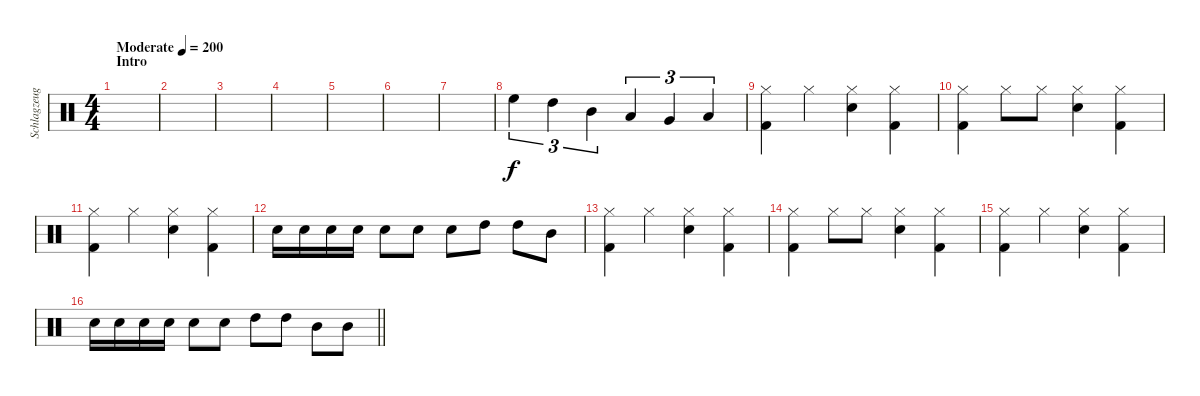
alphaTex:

\track ("Schlagzeug" "Schlagzeug") {instrument percussion}
\staff {score}
\articulation defaults
\ts (4 4)
\section ("" "Intro")
\tempo (200 "Moderate")
\clef neutral
\ks c
|
|
|
|
|
|
|
"High Floor Tom (hit)".4{tu (3 2)} "High Tom (hit)".4{tu (3 2)} "Mid Tom (hit)".4{tu (3 2)} "Low Tom (hit)".4{tu (3 2)} "Very Low Tom (hit)".4{tu (3 2)} "Low Floor Tom (hit)".4{tu (3 2)} |
("Hi-Hat (closed)" "Kick (hit) 2").4 "Hi-Hat (closed)".4 ("Hi-Hat (closed)" "Snare (hit) 2").4 ("Hi-Hat (closed)" "Kick (hit) 2").4 |
("Hi-Hat (closed)" "Kick (hit) 2").4 "Hi-Hat (closed)".8 "Hi-Hat (closed)".8 ("Hi-Hat (closed)" "Snare (hit) 2").4 ("Hi-Hat (closed)" "Kick (hit) 2").4 |
("Hi-Hat (closed)" "Kick (hit) 2").4 "Hi-Hat (closed)".4 ("Hi-Hat (closed)" "Snare (hit) 2").4 ("Hi-Hat (closed)" "Kick (hit) 2").4 |
"Electric Snare (hit)".16 "Electric Snare (hit)".16 "Electric Snare (hit)".16 "Electric Snare (hit)".16 "Snare (hit) 2".8 "Snare (hit) 2".8 "Snare (hit) 2".8 "High Tom (hit)".8 "High Tom (hit)".8 "Mid Tom (hit)".8 |
("Hi-Hat (closed)" "Kick (hit) 2").4 "Hi-Hat (closed)".4 ("Hi-Hat (closed)" "Snare (hit) 2").4 ("Hi-Hat (closed)" "Kick (hit) 2").4 |
("Hi-Hat (closed)" "Kick (hit) 2").4 "Hi-Hat (closed)".8 "Hi-Hat (closed)".8 ("Hi-Hat (closed)" "Snare (hit) 2").4 ("Hi-Hat (closed)" "Kick (hit) 2").4 |
("Hi-Hat (closed)" "Kick (hit) 2").4 "Hi-Hat (closed)".4 ("Hi-Hat (closed)" "Snare (hit) 2").4 ("Hi-Hat (closed)" "Kick (hit) 2").4 |
\barLineRight lightlight "Snare (hit) 2".16 "Snare (hit) 2".16 "Snare (hit) 2".16 "Snare (hit) 2".16 "Snare (hit) 2".8 "Snare (hit) 2".8 "High Tom (hit)".8 "High Tom (hit)".8 "Mid Tom (hit)".8 "Mid Tom (hit)".8
